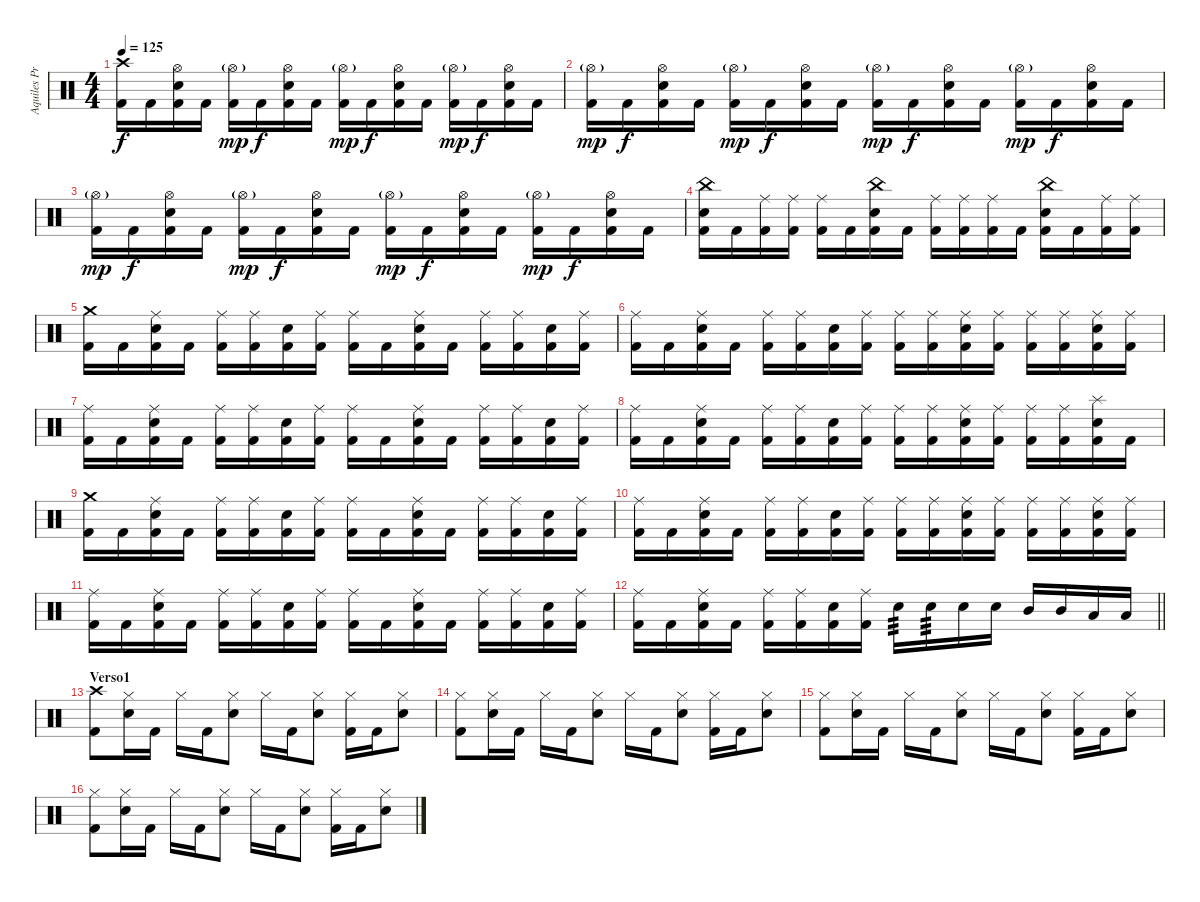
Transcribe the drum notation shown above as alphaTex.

\track ("Aquiles Priester" "Aquiles Pr") {instrument percussion}
\staff {score}
\articulation defaults
\ts (4 4)
\tempo 125
\clef neutral
\ks c
("Crash high (hit)" "Kick (hit) 2").16{dy f} "Kick (hit) 2".16 ("Hi-Hat (open)" "Electric Snare (hit)" "Kick (hit) 2").16 "Kick (hit) 2".16 ("Hi-Hat (open)"{g} "Kick (hit) 2").16{dy mp} "Kick (hit) 2".16{dy f} ("Hi-Hat (open)" "Electric Snare (hit)" "Kick (hit) 2").16 "Kick (hit) 2".16 ("Hi-Hat (open)"{g} "Kick (hit) 2").16{dy mp} "Kick (hit) 2".16{dy f} ("Hi-Hat (open)" "Electric Snare (hit)" "Kick (hit) 2").16 "Kick (hit) 2".16 ("Hi-Hat (open)"{g} "Kick (hit) 2").16{dy mp} "Kick (hit) 2".16{dy f} ("Hi-Hat (open)" "Electric Snare (hit)" "Kick (hit) 2").16 "Kick (hit) 2".16 |
("Hi-Hat (open)"{g} "Kick (hit) 2").16{dy mp} "Kick (hit) 2".16{dy f} ("Hi-Hat (open)" "Electric Snare (hit)" "Kick (hit) 2").16 "Kick (hit) 2".16 ("Hi-Hat (open)"{g} "Kick (hit) 2").16{dy mp} "Kick (hit) 2".16{dy f} ("Hi-Hat (open)" "Electric Snare (hit)" "Kick (hit) 2").16 "Kick (hit) 2".16 ("Hi-Hat (open)"{g} "Kick (hit) 2").16{dy mp} "Kick (hit) 2".16{dy f} ("Hi-Hat (open)" "Electric Snare (hit)" "Kick (hit) 2").16 "Kick (hit) 2".16 ("Hi-Hat (open)"{g} "Kick (hit) 2").16{dy mp} "Kick (hit) 2".16{dy f} ("Hi-Hat (open)" "Electric Snare (hit)" "Kick (hit) 2").16 "Kick (hit) 2".16 |
("Hi-Hat (open)"{g} "Kick (hit) 2").16{dy mp} "Kick (hit) 2".16{dy f} ("Hi-Hat (open)" "Electric Snare (hit)" "Kick (hit) 2").16 "Kick (hit) 2".16 ("Hi-Hat (open)"{g} "Kick (hit) 2").16{dy mp} "Kick (hit) 2".16{dy f} ("Hi-Hat (open)" "Electric Snare (hit)" "Kick (hit) 2").16 "Kick (hit) 2".16 ("Hi-Hat (open)"{g} "Kick (hit) 2").16{dy mp} "Kick (hit) 2".16{dy f} ("Hi-Hat (open)" "Electric Snare (hit)" "Kick (hit) 2").16 "Kick (hit) 2".16 ("Hi-Hat (open)"{g} "Kick (hit) 2").16{dy mp} "Kick (hit) 2".16{dy f} ("Hi-Hat (open)" "Electric Snare (hit)" "Kick (hit) 2").16 "Kick (hit) 2".16 |
("China (hit)" "Electric Snare (hit)" "Kick (hit) 2").16 "Kick (hit) 2".16 ("Ride (middle)" "Kick (hit) 2").16 ("Ride (middle)" "Kick (hit) 2").16 ("Ride (middle)" "Kick (hit) 2").16 "Kick (hit) 2".16 ("China (hit)" "Electric Snare (hit)" "Kick (hit) 2").16 "Kick (hit) 2".16 ("Ride (middle)" "Kick (hit) 2").16 ("Ride (middle)" "Kick (hit) 2").16 ("Ride (middle)" "Kick (hit) 2").16 "Kick (hit) 2".16 ("China (hit)" "Electric Snare (hit)" "Kick (hit) 2").16 "Kick (hit) 2".16 ("Ride (middle)" "Kick (hit) 2").16 ("Ride (middle)" "Kick (hit) 2").16 |
("Crash medium (hit)" "Kick (hit) 2").16 "Kick (hit) 2".16 ("Ride (middle)" "Electric Snare (hit)" "Kick (hit) 2").16 "Kick (hit) 2".16 ("Ride (middle)" "Kick (hit) 2").16 ("Ride (middle)" "Kick (hit) 2").16 ("Electric Snare (hit)" "Kick (hit) 2").16 ("Ride (middle)" "Kick (hit) 2").16 ("Ride (middle)" "Kick (hit) 2").16 "Kick (hit) 2".16 ("Ride (middle)" "Electric Snare (hit)" "Kick (hit) 2").16 "Kick (hit) 2".16 ("Ride (middle)" "Kick (hit) 2").16 ("Ride (middle)" "Kick (hit) 2").16 ("Electric Snare (hit)" "Kick (hit) 2").16 ("Ride (middle)" "Kick (hit) 2").16 |
("Ride (middle)" "Kick (hit) 2").16 "Kick (hit) 2".16 ("Ride (middle)" "Electric Snare (hit)" "Kick (hit) 2").16 "Kick (hit) 2".16 ("Ride (middle)" "Kick (hit) 2").16 ("Ride (middle)" "Kick (hit) 2").16 ("Electric Snare (hit)" "Kick (hit) 2").16 ("Ride (middle)" "Kick (hit) 2").16 ("Ride (middle)" "Kick (hit) 2").16 ("Ride (middle)" "Kick (hit) 2").16 ("Ride (middle)" "Electric Snare (hit)" "Kick (hit) 2").16 ("Ride (middle)" "Kick (hit) 2").16 ("Ride (middle)" "Kick (hit) 2").16 ("Ride (middle)" "Kick (hit) 2").16 ("Ride (middle)" "Electric Snare (hit)" "Kick (hit) 2").16 ("Ride (middle)" "Kick (hit) 2").16 |
("Ride (middle)" "Kick (hit) 2").16 "Kick (hit) 2".16 ("Ride (middle)" "Electric Snare (hit)" "Kick (hit) 2").16 "Kick (hit) 2".16 ("Ride (middle)" "Kick (hit) 2").16 ("Ride (middle)" "Kick (hit) 2").16 ("Electric Snare (hit)" "Kick (hit) 2").16 ("Ride (middle)" "Kick (hit) 2").16 ("Ride (middle)" "Kick (hit) 2").16 "Kick (hit) 2".16 ("Ride (middle)" "Electric Snare (hit)" "Kick (hit) 2").16 "Kick (hit) 2".16 ("Ride (middle)" "Kick (hit) 2").16 ("Ride (middle)" "Kick (hit) 2").16 ("Electric Snare (hit)" "Kick (hit) 2").16 ("Ride (middle)" "Kick (hit) 2").16 |
("Ride (middle)" "Kick (hit) 2").16 "Kick (hit) 2".16 ("Ride (middle)" "Electric Snare (hit)" "Kick (hit) 2").16 "Kick (hit) 2".16 ("Ride (middle)" "Kick (hit) 2").16 ("Ride (middle)" "Kick (hit) 2").16 ("Electric Snare (hit)" "Kick (hit) 2").16 ("Ride (middle)" "Kick (hit) 2").16 ("Ride (middle)" "Kick (hit) 2").16 ("Ride (middle)" "Kick (hit) 2").16 ("Ride (middle)" "Electric Snare (hit)" "Kick (hit) 2").16 ("Ride (middle)" "Kick (hit) 2").16 ("Ride (middle)" "Kick (hit) 2").16 ("Ride (middle)" "Kick (hit) 2").16 ("Splash (hit)" "Electric Snare (hit)" "Kick (hit) 2").16 "Kick (hit) 2".16 |
("Crash medium (hit)" "Kick (hit) 2").16 "Kick (hit) 2".16 ("Ride (middle)" "Electric Snare (hit)" "Kick (hit) 2").16 "Kick (hit) 2".16 ("Ride (middle)" "Kick (hit) 2").16 ("Ride (middle)" "Kick (hit) 2").16 ("Electric Snare (hit)" "Kick (hit) 2").16 ("Ride (middle)" "Kick (hit) 2").16 ("Ride (middle)" "Kick (hit) 2").16 "Kick (hit) 2".16 ("Ride (middle)" "Electric Snare (hit)" "Kick (hit) 2").16 "Kick (hit) 2".16 ("Ride (middle)" "Kick (hit) 2").16 ("Ride (middle)" "Kick (hit) 2").16 ("Electric Snare (hit)" "Kick (hit) 2").16 ("Ride (middle)" "Kick (hit) 2").16 |
("Ride (middle)" "Kick (hit) 2").16 "Kick (hit) 2".16 ("Ride (middle)" "Electric Snare (hit)" "Kick (hit) 2").16 "Kick (hit) 2".16 ("Ride (middle)" "Kick (hit) 2").16 ("Ride (middle)" "Kick (hit) 2").16 ("Electric Snare (hit)" "Kick (hit) 2").16 ("Ride (middle)" "Kick (hit) 2").16 ("Ride (middle)" "Kick (hit) 2").16 ("Ride (middle)" "Kick (hit) 2").16 ("Ride (middle)" "Electric Snare (hit)" "Kick (hit) 2").16 ("Ride (middle)" "Kick (hit) 2").16 ("Ride (middle)" "Kick (hit) 2").16 ("Ride (middle)" "Kick (hit) 2").16 ("Ride (middle)" "Electric Snare (hit)" "Kick (hit) 2").16 ("Ride (middle)" "Kick (hit) 2").16 |
("Ride (middle)" "Kick (hit) 2").16 "Kick (hit) 2".16 ("Ride (middle)" "Electric Snare (hit)" "Kick (hit) 2").16 "Kick (hit) 2".16 ("Ride (middle)" "Kick (hit) 2").16 ("Ride (middle)" "Kick (hit) 2").16 ("Electric Snare (hit)" "Kick (hit) 2").16 ("Ride (middle)" "Kick (hit) 2").16 ("Ride (middle)" "Kick (hit) 2").16 "Kick (hit) 2".16 ("Ride (middle)" "Electric Snare (hit)" "Kick (hit) 2").16 "Kick (hit) 2".16 ("Ride (middle)" "Kick (hit) 2").16 ("Ride (middle)" "Kick (hit) 2").16 ("Electric Snare (hit)" "Kick (hit) 2").16 ("Ride (middle)" "Kick (hit) 2").16 |
\barLineRight lightlight
("Ride (middle)" "Kick (hit) 2").16 "Kick (hit) 2".16 ("Ride (middle)" "Electric Snare (hit)" "Kick (hit) 2").16 "Kick (hit) 2".16 ("Ride (middle)" "Kick (hit) 2").16 ("Ride (middle)" "Kick (hit) 2").16 ("Electric Snare (hit)" "Kick (hit) 2").16 ("Ride (middle)" "Kick (hit) 2").16 "Electric Snare (hit)".16{tp 3} "Electric Snare (hit)".16{tp 3} "Electric Snare (hit)".16 "Electric Snare (hit)".16 "Mid Tom (hit)".16 "Mid Tom (hit)".16 "Low Tom (hit)".16 "Low Tom (hit)".16 |
\section ("" "Verso1")
("Crash high (hit)" "Kick (hit) 2").8 ("Hi-Hat (closed)" "Electric Snare (hit)").16 "Kick (hit) 2".16 "Hi-Hat (closed)".16 "Kick (hit) 2".16 ("Hi-Hat (closed)" "Electric Snare (hit)").8 "Hi-Hat (closed)".16 "Kick (hit) 2".16 ("Hi-Hat (closed)" "Electric Snare (hit)").8 ("Hi-Hat (closed)" "Kick (hit) 2").16 "Kick (hit) 2".16 ("Hi-Hat (closed)" "Electric Snare (hit)").8 |
("Hi-Hat (closed)" "Kick (hit) 2").8 ("Hi-Hat (closed)" "Electric Snare (hit)").16 "Kick (hit) 2".16 "Hi-Hat (closed)".16 "Kick (hit) 2".16 ("Hi-Hat (closed)" "Electric Snare (hit)").8 "Hi-Hat (closed)".16 "Kick (hit) 2".16 ("Hi-Hat (closed)" "Electric Snare (hit)").8 ("Hi-Hat (closed)" "Kick (hit) 2").16 "Kick (hit) 2".16 ("Hi-Hat (closed)" "Electric Snare (hit)").8 |
("Hi-Hat (closed)" "Kick (hit) 2").8 ("Hi-Hat (closed)" "Electric Snare (hit)").16 "Kick (hit) 2".16 "Hi-Hat (closed)".16 "Kick (hit) 2".16 ("Hi-Hat (closed)" "Electric Snare (hit)").8 "Hi-Hat (closed)".16 "Kick (hit) 2".16 ("Hi-Hat (closed)" "Electric Snare (hit)").8 ("Hi-Hat (closed)" "Kick (hit) 2").16 "Kick (hit) 2".16 ("Hi-Hat (closed)" "Electric Snare (hit)").8 |
("Hi-Hat (closed)" "Kick (hit) 2").8 ("Hi-Hat (closed)" "Electric Snare (hit)").16 "Kick (hit) 2".16 "Hi-Hat (closed)".16 "Kick (hit) 2".16 ("Hi-Hat (closed)" "Electric Snare (hit)").8 "Hi-Hat (closed)".16 "Kick (hit) 2".16 ("Hi-Hat (closed)" "Electric Snare (hit)").8 ("Hi-Hat (closed)" "Kick (hit) 2").16 "Kick (hit) 2".16 ("Hi-Hat (closed)" "Electric Snare (hit)").8
